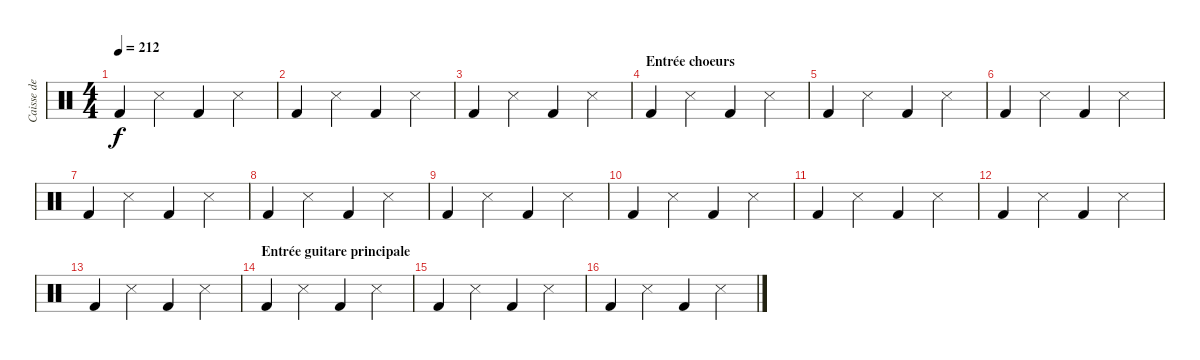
\track ("Caisse de guitare" "Caisse de ") {instrument percussion}
\staff {score}
\articulation defaults
\ts (4 4)
\tempo 212
\clef neutral
\ks c "Kick (hit) 2".4{dy f} "Metronome (hit)".4 "Kick (hit) 2".4 "Metronome (hit)".4
|
"Kick (hit) 2".4 "Metronome (hit)".4 "Kick (hit) 2".4 "Metronome (hit)".4 |
"Kick (hit) 2".4 "Metronome (hit)".4 "Kick (hit) 2".4 "Metronome (hit)".4 |
\section ("" "Entrée choeurs")
"Kick (hit) 2".4 "Metronome (hit)".4 "Kick (hit) 2".4 "Metronome (hit)".4 |
"Kick (hit) 2".4 "Metronome (hit)".4 "Kick (hit) 2".4 "Metronome (hit)".4 |
"Kick (hit) 2".4 "Metronome (hit)".4 "Kick (hit) 2".4 "Metronome (hit)".4 |
"Kick (hit) 2".4 "Metronome (hit)".4 "Kick (hit) 2".4 "Metronome (hit)".4 |
"Kick (hit) 2".4 "Metronome (hit)".4 "Kick (hit) 2".4 "Metronome (hit)".4 |
"Kick (hit) 2".4 "Metronome (hit)".4 "Kick (hit) 2".4 "Metronome (hit)".4 |
"Kick (hit) 2".4 "Metronome (hit)".4 "Kick (hit) 2".4 "Metronome (hit)".4 |
"Kick (hit) 2".4 "Metronome (hit)".4 "Kick (hit) 2".4 "Metronome (hit)".4 |
"Kick (hit) 2".4 "Metronome (hit)".4 "Kick (hit) 2".4 "Metronome (hit)".4 |
"Kick (hit) 2".4 "Metronome (hit)".4 "Kick (hit) 2".4 "Metronome (hit)".4 |
\section ("" "Entrée guitare principale")
"Kick (hit) 2".4 "Metronome (hit)".4 "Kick (hit) 2".4 "Metronome (hit)".4 |
"Kick (hit) 2".4 "Metronome (hit)".4 "Kick (hit) 2".4 "Metronome (hit)".4 |
"Kick (hit) 2".4 "Metronome (hit)".4 "Kick (hit) 2".4 "Metronome (hit)".4
